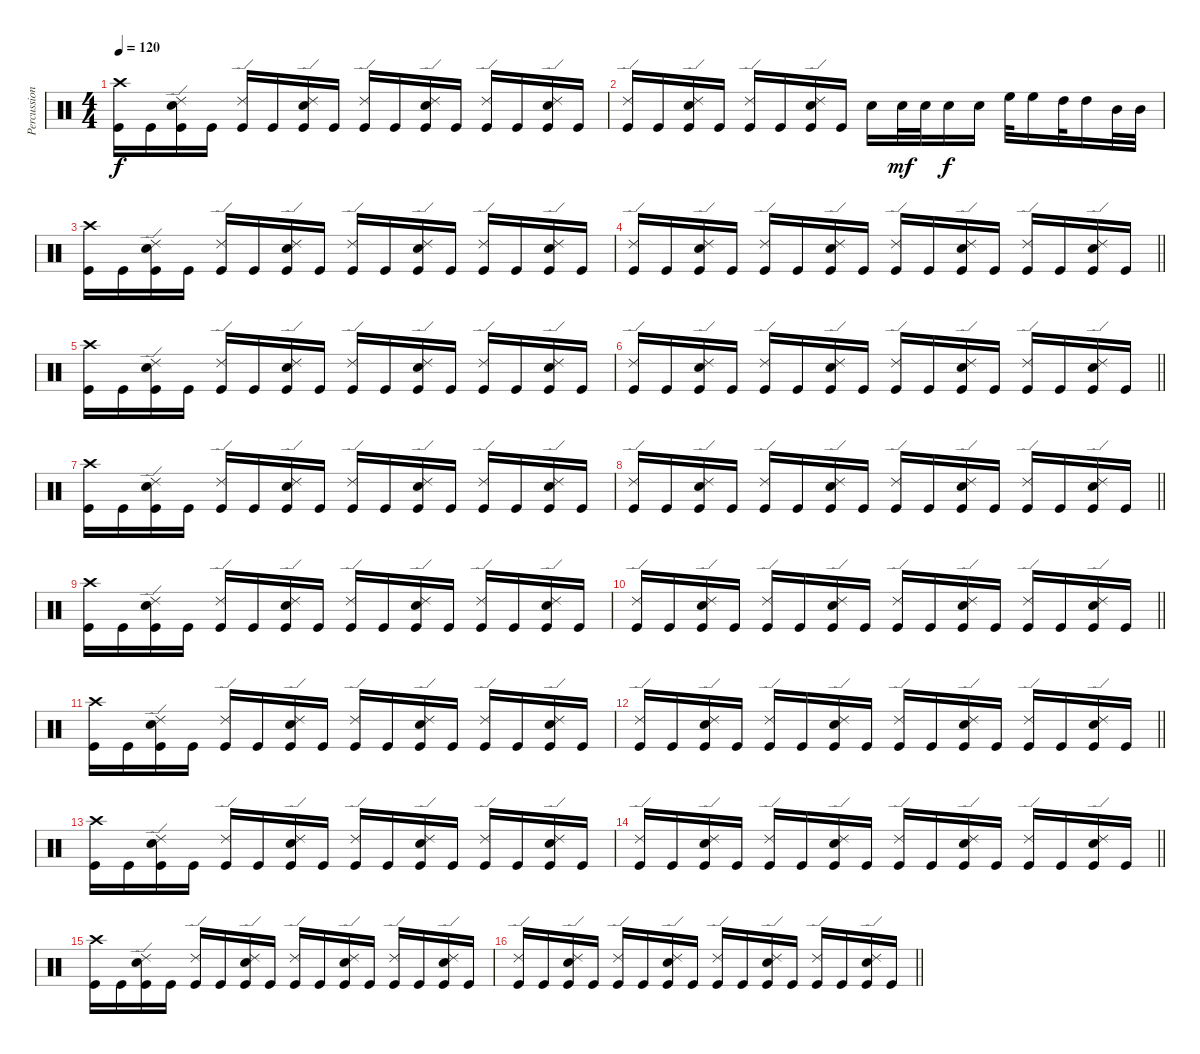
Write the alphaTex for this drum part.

\track ("Percussion(Satish)" "Percussion") {instrument percussion}
\staff {score}
\articulation defaults
\ts (4 4)
\tempo 120
\clef neutral
\ks c
("Crash high (hit)" "Kick (hit)").16{dy f} "Kick (hit)".16 ("Ride (edge) 2" "Electric Snare (hit)" "Kick (hit)").16 "Kick (hit)".16 ("Ride (edge) 2" "Kick (hit)").16 "Kick (hit)".16 ("Ride (edge) 2" "Electric Snare (hit)" "Kick (hit)").16 "Kick (hit)".16 ("Ride (edge) 2" "Kick (hit)").16 "Kick (hit)".16 ("Ride (edge) 2" "Electric Snare (hit)" "Kick (hit)").16 "Kick (hit)".16 ("Ride (edge) 2" "Kick (hit)").16 "Kick (hit)".16 ("Ride (edge) 2" "Electric Snare (hit)" "Kick (hit)").16 "Kick (hit)".16 |
("Ride (edge) 2" "Kick (hit)").16 "Kick (hit)".16 ("Ride (edge) 2" "Electric Snare (hit)" "Kick (hit)").16 "Kick (hit)".16 ("Ride (edge) 2" "Kick (hit)").16 "Kick (hit)".16 ("Ride (edge) 2" "Electric Snare (hit)" "Kick (hit)").16 "Kick (hit)".16 "Electric Snare (hit)".16 "Electric Snare (hit)".32{dy mf} "Electric Snare (hit)".32 "Electric Snare (hit)".16{dy f} "Electric Snare (hit)".16 "High Floor Tom (hit)".32 "High Floor Tom (hit)".16 "High Tom (hit)".32 "High Tom (hit)".16 "Mid Tom (hit)".32 "Mid Tom (hit)".32 |
("Crash high (hit)" "Kick (hit)").16 "Kick (hit)".16 ("Ride (edge) 2" "Electric Snare (hit)" "Kick (hit)").16 "Kick (hit)".16 ("Ride (edge) 2" "Kick (hit)").16 "Kick (hit)".16 ("Ride (edge) 2" "Electric Snare (hit)" "Kick (hit)").16 "Kick (hit)".16 ("Ride (edge) 2" "Kick (hit)").16 "Kick (hit)".16 ("Ride (edge) 2" "Electric Snare (hit)" "Kick (hit)").16 "Kick (hit)".16 ("Ride (edge) 2" "Kick (hit)").16 "Kick (hit)".16 ("Ride (edge) 2" "Electric Snare (hit)" "Kick (hit)").16 "Kick (hit)".16 |
\barLineRight lightlight
("Ride (edge) 2" "Kick (hit)").16 "Kick (hit)".16 ("Ride (edge) 2" "Electric Snare (hit)" "Kick (hit)").16 "Kick (hit)".16 ("Ride (edge) 2" "Kick (hit)").16 "Kick (hit)".16 ("Ride (edge) 2" "Electric Snare (hit)" "Kick (hit)").16 "Kick (hit)".16 ("Ride (edge) 2" "Kick (hit)").16 "Kick (hit)".16 ("Ride (edge) 2" "Electric Snare (hit)" "Kick (hit)").16 "Kick (hit)".16 ("Ride (edge) 2" "Kick (hit)").16 "Kick (hit)".16 ("Ride (edge) 2" "Electric Snare (hit)" "Kick (hit)").16 "Kick (hit)".16 |
("Crash high (hit)" "Kick (hit)").16 "Kick (hit)".16 ("Ride (edge) 2" "Electric Snare (hit)" "Kick (hit)").16 "Kick (hit)".16 ("Ride (edge) 2" "Kick (hit)").16 "Kick (hit)".16 ("Ride (edge) 2" "Electric Snare (hit)" "Kick (hit)").16 "Kick (hit)".16 ("Ride (edge) 2" "Kick (hit)").16 "Kick (hit)".16 ("Ride (edge) 2" "Electric Snare (hit)" "Kick (hit)").16 "Kick (hit)".16 ("Ride (edge) 2" "Kick (hit)").16 "Kick (hit)".16 ("Ride (edge) 2" "Electric Snare (hit)" "Kick (hit)").16 "Kick (hit)".16 |
\barLineRight lightlight
("Ride (edge) 2" "Kick (hit)").16 "Kick (hit)".16 ("Ride (edge) 2" "Electric Snare (hit)" "Kick (hit)").16 "Kick (hit)".16 ("Ride (edge) 2" "Kick (hit)").16 "Kick (hit)".16 ("Ride (edge) 2" "Electric Snare (hit)" "Kick (hit)").16 "Kick (hit)".16 ("Ride (edge) 2" "Kick (hit)").16 "Kick (hit)".16 ("Ride (edge) 2" "Electric Snare (hit)" "Kick (hit)").16 "Kick (hit)".16 ("Ride (edge) 2" "Kick (hit)").16 "Kick (hit)".16 ("Ride (edge) 2" "Electric Snare (hit)" "Kick (hit)").16 "Kick (hit)".16 |
("Crash high (hit)" "Kick (hit)").16 "Kick (hit)".16 ("Ride (edge) 2" "Electric Snare (hit)" "Kick (hit)").16 "Kick (hit)".16 ("Ride (edge) 2" "Kick (hit)").16 "Kick (hit)".16 ("Ride (edge) 2" "Electric Snare (hit)" "Kick (hit)").16 "Kick (hit)".16 ("Ride (edge) 2" "Kick (hit)").16 "Kick (hit)".16 ("Ride (edge) 2" "Electric Snare (hit)" "Kick (hit)").16 "Kick (hit)".16 ("Ride (edge) 2" "Kick (hit)").16 "Kick (hit)".16 ("Ride (edge) 2" "Electric Snare (hit)" "Kick (hit)").16 "Kick (hit)".16 |
\barLineRight lightlight
("Ride (edge) 2" "Kick (hit)").16 "Kick (hit)".16 ("Ride (edge) 2" "Electric Snare (hit)" "Kick (hit)").16 "Kick (hit)".16 ("Ride (edge) 2" "Kick (hit)").16 "Kick (hit)".16 ("Ride (edge) 2" "Electric Snare (hit)" "Kick (hit)").16 "Kick (hit)".16 ("Ride (edge) 2" "Kick (hit)").16 "Kick (hit)".16 ("Ride (edge) 2" "Electric Snare (hit)" "Kick (hit)").16 "Kick (hit)".16 ("Ride (edge) 2" "Kick (hit)").16 "Kick (hit)".16 ("Ride (edge) 2" "Electric Snare (hit)" "Kick (hit)").16 "Kick (hit)".16 |
("Crash high (hit)" "Kick (hit)").16 "Kick (hit)".16 ("Ride (edge) 2" "Electric Snare (hit)" "Kick (hit)").16 "Kick (hit)".16 ("Ride (edge) 2" "Kick (hit)").16 "Kick (hit)".16 ("Ride (edge) 2" "Electric Snare (hit)" "Kick (hit)").16 "Kick (hit)".16 ("Ride (edge) 2" "Kick (hit)").16 "Kick (hit)".16 ("Ride (edge) 2" "Electric Snare (hit)" "Kick (hit)").16 "Kick (hit)".16 ("Ride (edge) 2" "Kick (hit)").16 "Kick (hit)".16 ("Ride (edge) 2" "Electric Snare (hit)" "Kick (hit)").16 "Kick (hit)".16 |
\barLineRight lightlight
("Ride (edge) 2" "Kick (hit)").16 "Kick (hit)".16 ("Ride (edge) 2" "Electric Snare (hit)" "Kick (hit)").16 "Kick (hit)".16 ("Ride (edge) 2" "Kick (hit)").16 "Kick (hit)".16 ("Ride (edge) 2" "Electric Snare (hit)" "Kick (hit)").16 "Kick (hit)".16 ("Ride (edge) 2" "Kick (hit)").16 "Kick (hit)".16 ("Ride (edge) 2" "Electric Snare (hit)" "Kick (hit)").16 "Kick (hit)".16 ("Ride (edge) 2" "Kick (hit)").16 "Kick (hit)".16 ("Ride (edge) 2" "Electric Snare (hit)" "Kick (hit)").16 "Kick (hit)".16 |
("Crash high (hit)" "Kick (hit)").16 "Kick (hit)".16 ("Ride (edge) 2" "Electric Snare (hit)" "Kick (hit)").16 "Kick (hit)".16 ("Ride (edge) 2" "Kick (hit)").16 "Kick (hit)".16 ("Ride (edge) 2" "Electric Snare (hit)" "Kick (hit)").16 "Kick (hit)".16 ("Ride (edge) 2" "Kick (hit)").16 "Kick (hit)".16 ("Ride (edge) 2" "Electric Snare (hit)" "Kick (hit)").16 "Kick (hit)".16 ("Ride (edge) 2" "Kick (hit)").16 "Kick (hit)".16 ("Ride (edge) 2" "Electric Snare (hit)" "Kick (hit)").16 "Kick (hit)".16 |
\barLineRight lightlight
("Ride (edge) 2" "Kick (hit)").16 "Kick (hit)".16 ("Ride (edge) 2" "Electric Snare (hit)" "Kick (hit)").16 "Kick (hit)".16 ("Ride (edge) 2" "Kick (hit)").16 "Kick (hit)".16 ("Ride (edge) 2" "Electric Snare (hit)" "Kick (hit)").16 "Kick (hit)".16 ("Ride (edge) 2" "Kick (hit)").16 "Kick (hit)".16 ("Ride (edge) 2" "Electric Snare (hit)" "Kick (hit)").16 "Kick (hit)".16 ("Ride (edge) 2" "Kick (hit)").16 "Kick (hit)".16 ("Ride (edge) 2" "Electric Snare (hit)" "Kick (hit)").16 "Kick (hit)".16 |
("Crash high (hit)" "Kick (hit)").16 "Kick (hit)".16 ("Ride (edge) 2" "Electric Snare (hit)" "Kick (hit)").16 "Kick (hit)".16 ("Ride (edge) 2" "Kick (hit)").16 "Kick (hit)".16 ("Ride (edge) 2" "Electric Snare (hit)" "Kick (hit)").16 "Kick (hit)".16 ("Ride (edge) 2" "Kick (hit)").16 "Kick (hit)".16 ("Ride (edge) 2" "Electric Snare (hit)" "Kick (hit)").16 "Kick (hit)".16 ("Ride (edge) 2" "Kick (hit)").16 "Kick (hit)".16 ("Ride (edge) 2" "Electric Snare (hit)" "Kick (hit)").16 "Kick (hit)".16 |
\barLineRight lightlight
("Ride (edge) 2" "Kick (hit)").16 "Kick (hit)".16 ("Ride (edge) 2" "Electric Snare (hit)" "Kick (hit)").16 "Kick (hit)".16 ("Ride (edge) 2" "Kick (hit)").16 "Kick (hit)".16 ("Ride (edge) 2" "Electric Snare (hit)" "Kick (hit)").16 "Kick (hit)".16 ("Ride (edge) 2" "Kick (hit)").16 "Kick (hit)".16 ("Ride (edge) 2" "Electric Snare (hit)" "Kick (hit)").16 "Kick (hit)".16 ("Ride (edge) 2" "Kick (hit)").16 "Kick (hit)".16 ("Ride (edge) 2" "Electric Snare (hit)" "Kick (hit)").16 "Kick (hit)".16 |
("Crash high (hit)" "Kick (hit)").16 "Kick (hit)".16 ("Ride (edge) 2" "Electric Snare (hit)" "Kick (hit)").16 "Kick (hit)".16 ("Ride (edge) 2" "Kick (hit)").16 "Kick (hit)".16 ("Ride (edge) 2" "Electric Snare (hit)" "Kick (hit)").16 "Kick (hit)".16 ("Ride (edge) 2" "Kick (hit)").16 "Kick (hit)".16 ("Ride (edge) 2" "Electric Snare (hit)" "Kick (hit)").16 "Kick (hit)".16 ("Ride (edge) 2" "Kick (hit)").16 "Kick (hit)".16 ("Ride (edge) 2" "Electric Snare (hit)" "Kick (hit)").16 "Kick (hit)".16 |
\barLineRight lightlight
("Ride (edge) 2" "Kick (hit)").16 "Kick (hit)".16 ("Ride (edge) 2" "Electric Snare (hit)" "Kick (hit)").16 "Kick (hit)".16 ("Ride (edge) 2" "Kick (hit)").16 "Kick (hit)".16 ("Ride (edge) 2" "Electric Snare (hit)" "Kick (hit)").16 "Kick (hit)".16 ("Ride (edge) 2" "Kick (hit)").16 "Kick (hit)".16 ("Ride (edge) 2" "Electric Snare (hit)" "Kick (hit)").16 "Kick (hit)".16 ("Ride (edge) 2" "Kick (hit)").16 "Kick (hit)".16 ("Ride (edge) 2" "Electric Snare (hit)" "Kick (hit)").16 "Kick (hit)".16
